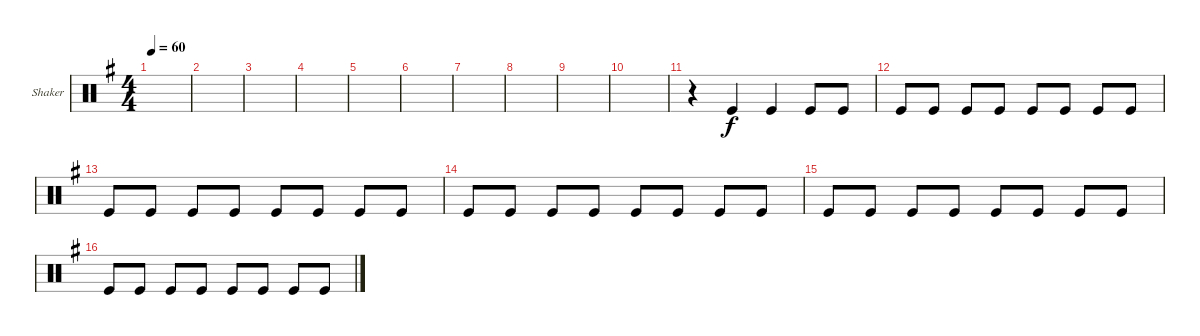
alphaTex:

\defaultSystemsLayout 4
\bracketExtendMode groupsimilarinstruments
\firstSystemTrackNameOrientation horizontal
\otherSystemsTrackNameOrientation horizontal
\track ("Shaker" "Shaker") {instrument percussion}
\staff {score}
\articulation defaults
\ts (4 4)
\tempo 60
\clef neutral
\scale
0.333333
\ks g
|
\scale
0.333333 |
\scale
0.333333 |
\scale
0.333333 |
\scale
0.333333 |
\scale
0.333333 |
\scale
0.333333 |
\scale
0.333333 |
\scale
0.333333 |
\scale
0.333333 |
\scale
0.333333 r.4 "Kick (hit)".4 "Kick (hit)".4 "Kick (hit)".8 "Kick (hit)".8 |
\scale
0.333333 "Kick (hit)".8 "Kick (hit)".8 "Kick (hit)".8 "Kick (hit)".8 "Kick (hit)".8 "Kick (hit)".8 "Kick (hit)".8 "Kick (hit)".8 |
\scale
0.333333 "Kick (hit)".8 "Kick (hit)".8 "Kick (hit)".8 "Kick (hit)".8 "Kick (hit)".8 "Kick (hit)".8 "Kick (hit)".8 "Kick (hit)".8 |
\scale
0.333333 "Kick (hit)".8 "Kick (hit)".8 "Kick (hit)".8 "Kick (hit)".8 "Kick (hit)".8 "Kick (hit)".8 "Kick (hit)".8 "Kick (hit)".8 |
\scale
0.333333 "Kick (hit)".8 "Kick (hit)".8 "Kick (hit)".8 "Kick (hit)".8 "Kick (hit)".8 "Kick (hit)".8 "Kick (hit)".8 "Kick (hit)".8 |
\scale
0.333333 "Kick (hit)".8 "Kick (hit)".8 "Kick (hit)".8 "Kick (hit)".8 "Kick (hit)".8 "Kick (hit)".8 "Kick (hit)".8 "Kick (hit)".8
